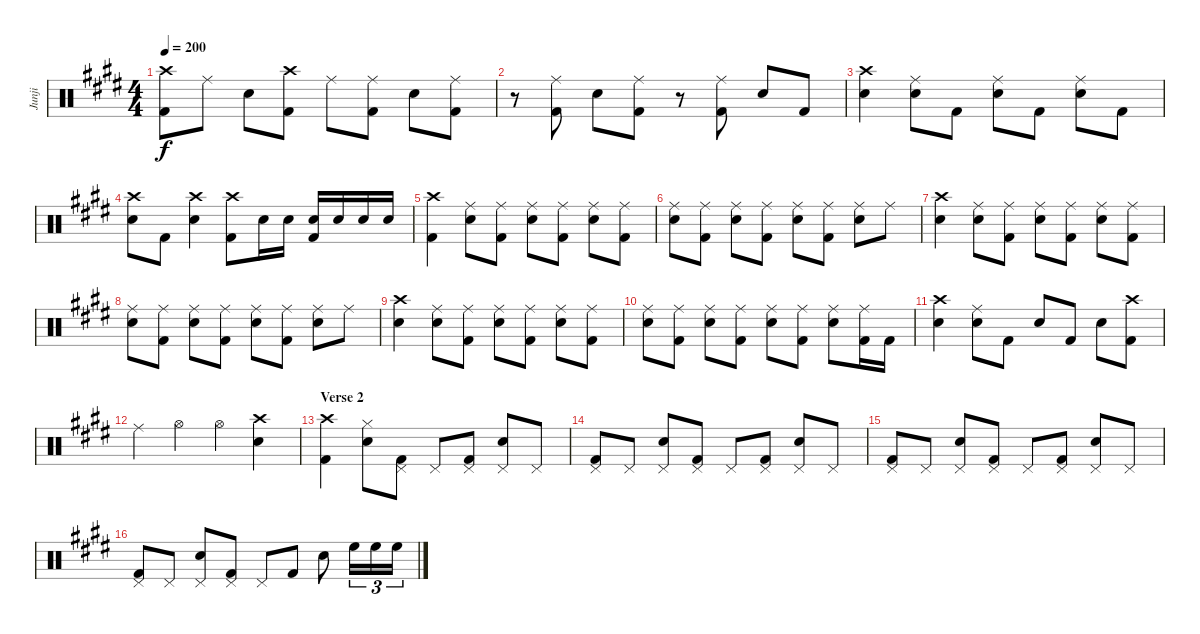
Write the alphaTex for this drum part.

\track ("Junji" "Junji") {instrument percussion}
\staff {score}
\articulation defaults
\ts (4 4)
\tempo 200
\clef neutral
\ks e
("Crash high (hit)" "Kick (hit) 2").8{dy f} "Ride (middle)".8 "Snare (hit) 2".8 ("Crash high (hit)" "Kick (hit) 2").8 "Ride (middle)".8 ("Ride (middle)" "Kick (hit) 2").8 "Snare (hit) 2".8 ("Ride (middle)" "Kick (hit) 2").8 |
r.8 ("Ride (middle)" "Kick (hit) 2").8 "Snare (hit) 2".8 ("Ride (middle)" "Kick (hit) 2").8 r.8 ("Ride (middle)" "Kick (hit) 2").8 "Snare (hit) 2".8 "Kick (hit) 2".8 |
("Crash high (hit)" "Snare (hit) 2").4 ("Ride (middle)" "Snare (hit) 2").8 "Kick (hit) 2".8 ("Ride (middle)" "Snare (hit) 2").8 "Kick (hit) 2".8 ("Ride (middle)" "Snare (hit) 2").8 "Kick (hit) 2".8 |
("Crash high (hit)" "Snare (hit) 2").8 "Kick (hit) 2".8 ("Crash high (hit)" "Snare (hit) 2").4 ("Crash high (hit)" "Kick (hit) 2").8 "Snare (hit) 2".16 "Snare (hit) 2".16 ("Snare (hit) 2" "Kick (hit) 2").16 "Snare (hit) 2".16 "Snare (hit) 2".16 "Snare (hit) 2".16 |
("Crash high (hit)" "Kick (hit) 2").4 ("Ride (middle)" "Snare (hit) 2").8 ("Ride (middle)" "Kick (hit) 2").8 ("Ride (middle)" "Snare (hit) 2").8 ("Ride (middle)" "Kick (hit) 2").8 ("Ride (middle)" "Snare (hit) 2").8 ("Ride (middle)" "Kick (hit) 2").8 |
("Ride (middle)" "Snare (hit) 2").8 ("Ride (middle)" "Kick (hit) 2").8 ("Ride (middle)" "Snare (hit) 2").8 ("Ride (middle)" "Kick (hit) 2").8 ("Ride (middle)" "Snare (hit) 2").8 ("Ride (middle)" "Kick (hit) 2").8 ("Ride (middle)" "Snare (hit) 2").8 "Ride (middle)".8 |
("Crash high (hit)" "Snare (hit) 2").4 ("Ride (middle)" "Snare (hit) 2").8 ("Ride (middle)" "Kick (hit) 2").8 ("Ride (middle)" "Snare (hit) 2").8 ("Ride (middle)" "Kick (hit) 2").8 ("Ride (middle)" "Snare (hit) 2").8 ("Ride (middle)" "Kick (hit) 2").8 |
("Ride (middle)" "Snare (hit) 2").8 ("Ride (middle)" "Kick (hit) 2").8 ("Ride (middle)" "Snare (hit) 2").8 ("Ride (middle)" "Kick (hit) 2").8 ("Ride (middle)" "Snare (hit) 2").8 ("Ride (middle)" "Kick (hit) 2").8 ("Ride (middle)" "Snare (hit) 2").8 "Ride (middle)".8 |
("Crash high (hit)" "Snare (hit) 2").4 ("Ride (middle)" "Snare (hit) 2").8 ("Ride (middle)" "Kick (hit) 2").8 ("Ride (middle)" "Snare (hit) 2").8 ("Ride (middle)" "Kick (hit) 2").8 ("Ride (middle)" "Snare (hit) 2").8 ("Ride (middle)" "Kick (hit) 2").8 |
("Ride (middle)" "Snare (hit) 2").8 ("Ride (middle)" "Kick (hit) 2").8 ("Ride (middle)" "Snare (hit) 2").8 ("Ride (middle)" "Kick (hit) 2").8 ("Ride (middle)" "Snare (hit) 2").8 ("Ride (middle)" "Kick (hit) 2").8 ("Ride (middle)" "Snare (hit) 2").8 ("Ride (middle)" "Kick (hit) 2").16 "Kick (hit) 2".16 |
("Crash high (hit)" "Snare (hit) 2").4 ("Ride (middle)" "Snare (hit) 2").8 "Kick (hit) 2".8 "Snare (hit) 2".8 "Kick (hit) 2".8 "Snare (hit) 2".8 ("Crash high (hit)" "Kick (hit) 2").8 |
"Ride (middle)".4 "Hi-Hat (open)".4 "Hi-Hat (open)".4 ("Crash high (hit)" "Snare (hit) 2").4 |
\section ("" "Verse 2")
("Crash high (hit)" "Kick (hit) 2").4 ("Hi-Hat (closed)" "Snare (hit) 2").8 ("Pedal Hi-Hat (hit)" "Kick (hit) 2").8 "Pedal Hi-Hat (hit)".8 ("Pedal Hi-Hat (hit)" "Kick (hit) 2").8 ("Pedal Hi-Hat (hit)" "Snare (hit) 2").8 "Pedal Hi-Hat (hit)".8 |
("Pedal Hi-Hat (hit)" "Kick (hit) 2").8 "Pedal Hi-Hat (hit)".8 ("Pedal Hi-Hat (hit)" "Snare (hit) 2").8 ("Pedal Hi-Hat (hit)" "Kick (hit) 2").8 "Pedal Hi-Hat (hit)".8 ("Pedal Hi-Hat (hit)" "Kick (hit) 2").8 ("Pedal Hi-Hat (hit)" "Snare (hit) 2").8 "Pedal Hi-Hat (hit)".8 |
("Pedal Hi-Hat (hit)" "Kick (hit) 2").8 "Pedal Hi-Hat (hit)".8 ("Pedal Hi-Hat (hit)" "Snare (hit) 2").8 ("Pedal Hi-Hat (hit)" "Kick (hit) 2").8 "Pedal Hi-Hat (hit)".8 ("Pedal Hi-Hat (hit)" "Kick (hit) 2").8 ("Pedal Hi-Hat (hit)" "Snare (hit) 2").8 "Pedal Hi-Hat (hit)".8 |
("Pedal Hi-Hat (hit)" "Kick (hit) 2").8 "Pedal Hi-Hat (hit)".8 ("Pedal Hi-Hat (hit)" "Snare (hit) 2").8 ("Pedal Hi-Hat (hit)" "Kick (hit) 2").8 "Pedal Hi-Hat (hit)".8 "Kick (hit) 2".8 "Snare (hit) 2".8 "High Floor Tom (hit)".16{tu (3 2)} "High Floor Tom (hit)".16{tu (3 2)} "High Floor Tom (hit)".16{tu (3 2)}
